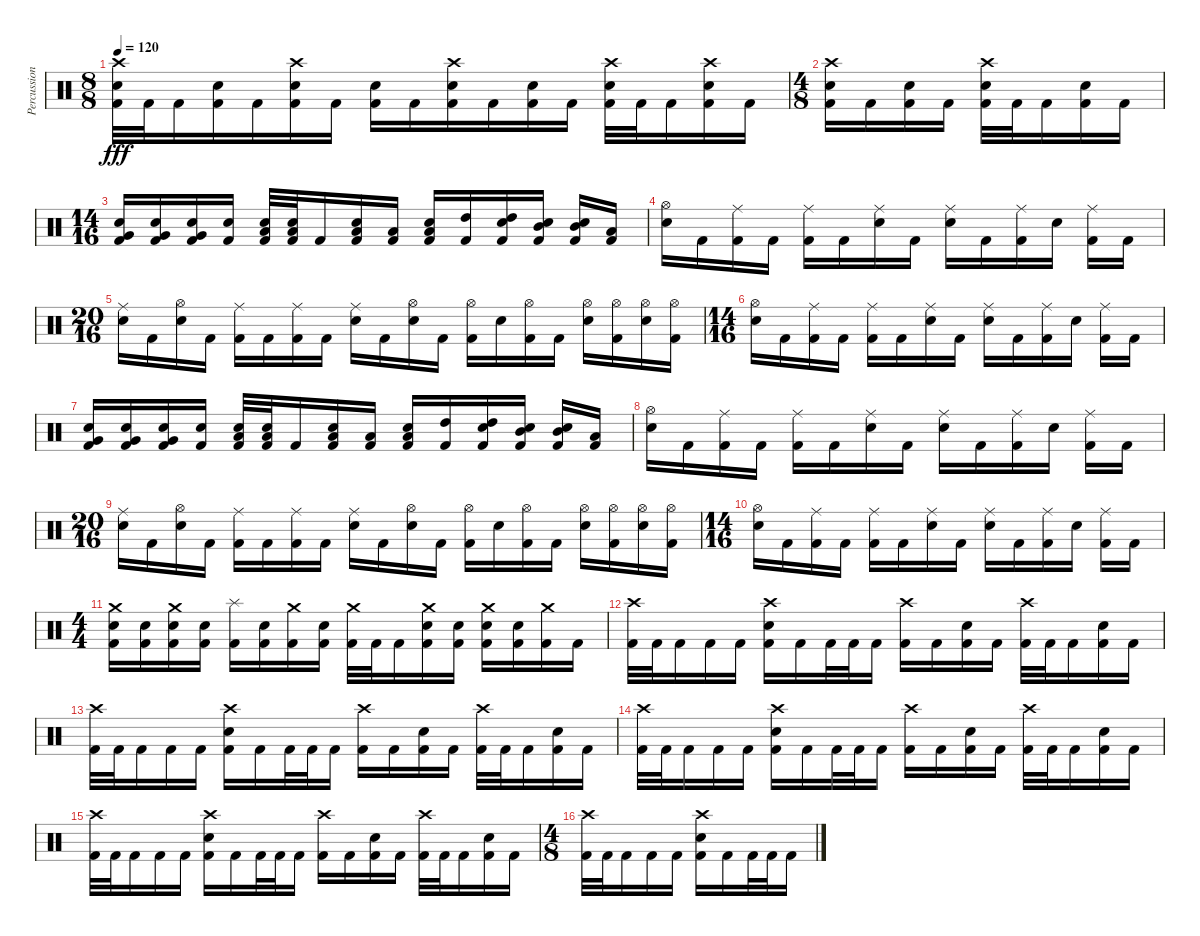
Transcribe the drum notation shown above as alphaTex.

\track ("Percussion" "Percussion") {instrument percussion}
\staff {score}
\articulation defaults
\ts (8 8)
\tempo 120
\clef neutral
\ks c
("Crash high (hit)" "Snare (hit) 2" "Kick (hit) 2").32{dy fff} "Kick (hit) 2".32 "Kick (hit) 2".16 ("Snare (hit) 2" "Kick (hit) 2").16 "Kick (hit) 2".16 ("Crash high (hit)" "Snare (hit) 2" "Kick (hit) 2").16 "Kick (hit) 2".16 ("Snare (hit) 2" "Kick (hit) 2").16 "Kick (hit) 2".16 ("Crash high (hit)" "Snare (hit) 2" "Kick (hit) 2").16 "Kick (hit) 2".16 ("Snare (hit) 2" "Kick (hit) 2").16 "Kick (hit) 2".16 ("Crash high (hit)" "Snare (hit) 2" "Kick (hit) 2").32 "Kick (hit) 2".32 "Kick (hit) 2".16 ("Crash high (hit)" "Snare (hit) 2" "Kick (hit) 2").16 "Kick (hit) 2".16 |
\ts (4 8)
("Crash high (hit)" "Snare (hit) 2" "Kick (hit) 2").16 "Kick (hit) 2".16 ("Snare (hit) 2" "Kick (hit) 2").16 "Kick (hit) 2".16 ("Crash high (hit)" "Snare (hit) 2" "Kick (hit) 2").32 "Kick (hit) 2".32 "Kick (hit) 2".16 ("Snare (hit) 2" "Kick (hit) 2").16 "Kick (hit) 2".16 |
\ts (14 16)
("Very Low Tom (hit)" "Snare (hit) 2" "Kick (hit) 2").16 ("Very Low Tom (hit)" "Snare (hit) 2" "Kick (hit) 2").16 ("Very Low Tom (hit)" "Snare (hit) 2" "Kick (hit) 2").16 ("Snare (hit) 2" "Kick (hit) 2").16 ("Low Floor Tom (hit)" "Snare (hit) 2" "Kick (hit) 2").32 ("Low Floor Tom (hit)" "Snare (hit) 2" "Kick (hit) 2").32 "Kick (hit) 2".16 ("Low Tom (hit)" "Snare (hit) 2" "Kick (hit) 2").16 ("Low Tom (hit)" "Kick (hit) 2").16 ("Low Tom (hit)" "Snare (hit) 2" "Kick (hit) 2").16 ("High Tom (hit)" "Kick (hit) 2").16 ("High Tom (hit)" "Snare (hit) 2" "Kick (hit) 2").16 ("Mid Tom (hit)" "Snare (hit) 2" "Kick (hit) 2").16 ("Mid Tom (hit)" "Snare (hit) 2" "Kick (hit) 2").16 ("Low Tom (hit)" "Kick (hit) 2").16 |
("Hi-Hat (open)" "Snare (hit) 2").16 "Kick (hit) 2".16 ("Ride (middle)" "Kick (hit) 2").16 "Kick (hit) 2".16 ("Ride (middle)" "Kick (hit) 2").16 "Kick (hit) 2".16 ("Ride (middle)" "Snare (hit) 2").16 "Kick (hit) 2".16 ("Ride (middle)" "Snare (hit) 2").16 "Kick (hit) 2".16 ("Ride (middle)" "Kick (hit) 2").16 "Snare (hit) 2".16 ("Ride (middle)" "Kick (hit) 2").16 "Kick (hit) 2".16 |
\ts (20 16)
("Ride (middle)" "Snare (hit) 2").16 "Kick (hit) 2".16 ("Hi-Hat (open)" "Snare (hit) 2").16 "Kick (hit) 2".16 ("Ride (middle)" "Kick (hit) 2").16 "Kick (hit) 2".16 ("Ride (middle)" "Kick (hit) 2").16 "Kick (hit) 2".16 ("Ride (middle)" "Snare (hit) 2").16 "Kick (hit) 2".16 ("Hi-Hat (open)" "Snare (hit) 2").16 "Kick (hit) 2".16 ("Hi-Hat (open)" "Kick (hit) 2").16 "Snare (hit) 2".16 ("Hi-Hat (open)" "Kick (hit) 2").16 "Kick (hit) 2".16 ("Hi-Hat (open)" "Snare (hit) 2").16 ("Hi-Hat (open)" "Kick (hit) 2").16 ("Hi-Hat (open)" "Snare (hit) 2").16 ("Hi-Hat (open)" "Kick (hit) 2").16 |
\ts (14 16)
("Hi-Hat (open)" "Snare (hit) 2").16 "Kick (hit) 2".16 ("Ride (middle)" "Kick (hit) 2").16 "Kick (hit) 2".16 ("Ride (middle)" "Kick (hit) 2").16 "Kick (hit) 2".16 ("Ride (middle)" "Snare (hit) 2").16 "Kick (hit) 2".16 ("Ride (middle)" "Snare (hit) 2").16 "Kick (hit) 2".16 ("Ride (middle)" "Kick (hit) 2").16 "Snare (hit) 2".16 ("Ride (middle)" "Kick (hit) 2").16 "Kick (hit) 2".16 |
("Very Low Tom (hit)" "Snare (hit) 2" "Kick (hit) 2").16 ("Very Low Tom (hit)" "Snare (hit) 2" "Kick (hit) 2").16 ("Very Low Tom (hit)" "Snare (hit) 2" "Kick (hit) 2").16 ("Snare (hit) 2" "Kick (hit) 2").16 ("Low Floor Tom (hit)" "Snare (hit) 2" "Kick (hit) 2").32 ("Low Floor Tom (hit)" "Snare (hit) 2" "Kick (hit) 2").32 "Kick (hit) 2".16 ("Low Tom (hit)" "Snare (hit) 2" "Kick (hit) 2").16 ("Low Tom (hit)" "Kick (hit) 2").16 ("Low Tom (hit)" "Snare (hit) 2" "Kick (hit) 2").16 ("High Tom (hit)" "Kick (hit) 2").16 ("High Tom (hit)" "Snare (hit) 2" "Kick (hit) 2").16 ("Mid Tom (hit)" "Snare (hit) 2" "Kick (hit) 2").16 ("Mid Tom (hit)" "Snare (hit) 2" "Kick (hit) 2").16 ("Low Tom (hit)" "Kick (hit) 2").16 |
("Hi-Hat (open)" "Snare (hit) 2").16 "Kick (hit) 2".16 ("Ride (middle)" "Kick (hit) 2").16 "Kick (hit) 2".16 ("Ride (middle)" "Kick (hit) 2").16 "Kick (hit) 2".16 ("Ride (middle)" "Snare (hit) 2").16 "Kick (hit) 2".16 ("Ride (middle)" "Snare (hit) 2").16 "Kick (hit) 2".16 ("Ride (middle)" "Kick (hit) 2").16 "Snare (hit) 2".16 ("Ride (middle)" "Kick (hit) 2").16 "Kick (hit) 2".16 |
\ts (20 16)
("Ride (middle)" "Snare (hit) 2").16 "Kick (hit) 2".16 ("Hi-Hat (open)" "Snare (hit) 2").16 "Kick (hit) 2".16 ("Ride (middle)" "Kick (hit) 2").16 "Kick (hit) 2".16 ("Ride (middle)" "Kick (hit) 2").16 "Kick (hit) 2".16 ("Ride (middle)" "Snare (hit) 2").16 "Kick (hit) 2".16 ("Hi-Hat (open)" "Snare (hit) 2").16 "Kick (hit) 2".16 ("Hi-Hat (open)" "Kick (hit) 2").16 "Snare (hit) 2".16 ("Hi-Hat (open)" "Kick (hit) 2").16 "Kick (hit) 2".16 ("Hi-Hat (open)" "Snare (hit) 2").16 ("Hi-Hat (open)" "Kick (hit) 2").16 ("Hi-Hat (open)" "Snare (hit) 2").16 ("Hi-Hat (open)" "Kick (hit) 2").16 |
\ts (14 16)
("Hi-Hat (open)" "Snare (hit) 2").16 "Kick (hit) 2".16 ("Ride (middle)" "Kick (hit) 2").16 "Kick (hit) 2".16 ("Ride (middle)" "Kick (hit) 2").16 "Kick (hit) 2".16 ("Ride (middle)" "Snare (hit) 2").16 "Kick (hit) 2".16 ("Ride (middle)" "Snare (hit) 2").16 "Kick (hit) 2".16 ("Ride (middle)" "Kick (hit) 2").16 "Snare (hit) 2".16 ("Ride (middle)" "Kick (hit) 2").16 "Kick (hit) 2".16 |
\ts (4 4)
("Crash medium (hit)" "Snare (hit) 2" "Kick (hit) 2").16 ("Snare (hit) 2" "Kick (hit) 2").16 ("Crash medium (hit)" "Snare (hit) 2" "Kick (hit) 2").16 ("Snare (hit) 2" "Kick (hit) 2").16 ("Splash (hit)" "Kick (hit) 2").16 ("Snare (hit) 2" "Kick (hit) 2").16 ("Crash medium (hit)" "Kick (hit) 2").16 ("Snare (hit) 2" "Kick (hit) 2").16 ("Crash medium (hit)" "Kick (hit) 2").32 "Kick (hit) 2".32 "Kick (hit) 2".16 ("Crash medium (hit)" "Snare (hit) 2" "Kick (hit) 2").16 ("Snare (hit) 2" "Kick (hit) 2").16 ("Crash medium (hit)" "Snare (hit) 2" "Kick (hit) 2").16 ("Snare (hit) 2" "Kick (hit) 2").16 ("Crash medium (hit)" "Kick (hit) 2").16 "Kick (hit) 2".16 |
("Crash high (hit)" "Kick (hit) 2").32 "Kick (hit) 2".32 "Kick (hit) 2".16 "Kick (hit) 2".16 "Kick (hit) 2".16 ("Crash high (hit)" "Snare (hit) 2" "Kick (hit) 2").16 "Kick (hit) 2".16 "Kick (hit) 2".32 "Kick (hit) 2".32 "Kick (hit) 2".16 ("Crash high (hit)" "Kick (hit) 2").16 "Kick (hit) 2".16 ("Snare (hit) 2" "Kick (hit) 2").16 "Kick (hit) 2".16 ("Crash high (hit)" "Kick (hit) 2").32 "Kick (hit) 2".32 "Kick (hit) 2".16 ("Snare (hit) 2" "Kick (hit) 2").16 "Kick (hit) 2".16 |
("Crash high (hit)" "Kick (hit) 2").32 "Kick (hit) 2".32 "Kick (hit) 2".16 "Kick (hit) 2".16 "Kick (hit) 2".16 ("Crash high (hit)" "Snare (hit) 2" "Kick (hit) 2").16 "Kick (hit) 2".16 "Kick (hit) 2".32 "Kick (hit) 2".32 "Kick (hit) 2".16 ("Crash high (hit)" "Kick (hit) 2").16 "Kick (hit) 2".16 ("Snare (hit) 2" "Kick (hit) 2").16 "Kick (hit) 2".16 ("Crash high (hit)" "Kick (hit) 2").32 "Kick (hit) 2".32 "Kick (hit) 2".16 ("Snare (hit) 2" "Kick (hit) 2").16 "Kick (hit) 2".16 |
("Crash high (hit)" "Kick (hit) 2").32 "Kick (hit) 2".32 "Kick (hit) 2".16 "Kick (hit) 2".16 "Kick (hit) 2".16 ("Crash high (hit)" "Snare (hit) 2" "Kick (hit) 2").16 "Kick (hit) 2".16 "Kick (hit) 2".32 "Kick (hit) 2".32 "Kick (hit) 2".16 ("Crash high (hit)" "Kick (hit) 2").16 "Kick (hit) 2".16 ("Snare (hit) 2" "Kick (hit) 2").16 "Kick (hit) 2".16 ("Crash high (hit)" "Kick (hit) 2").32 "Kick (hit) 2".32 "Kick (hit) 2".16 ("Snare (hit) 2" "Kick (hit) 2").16 "Kick (hit) 2".16 |
("Crash high (hit)" "Kick (hit) 2").32 "Kick (hit) 2".32 "Kick (hit) 2".16 "Kick (hit) 2".16 "Kick (hit) 2".16 ("Crash high (hit)" "Snare (hit) 2" "Kick (hit) 2").16 "Kick (hit) 2".16 "Kick (hit) 2".32 "Kick (hit) 2".32 "Kick (hit) 2".16 ("Crash high (hit)" "Kick (hit) 2").16 "Kick (hit) 2".16 ("Snare (hit) 2" "Kick (hit) 2").16 "Kick (hit) 2".16 ("Crash high (hit)" "Kick (hit) 2").32 "Kick (hit) 2".32 "Kick (hit) 2".16 ("Snare (hit) 2" "Kick (hit) 2").16 "Kick (hit) 2".16 |
\ts (4 8)
("Crash high (hit)" "Kick (hit) 2").32 "Kick (hit) 2".32 "Kick (hit) 2".16 "Kick (hit) 2".16 "Kick (hit) 2".16 ("Crash high (hit)" "Snare (hit) 2" "Kick (hit) 2").16 "Kick (hit) 2".16 "Kick (hit) 2".32 "Kick (hit) 2".32 "Kick (hit) 2".16
